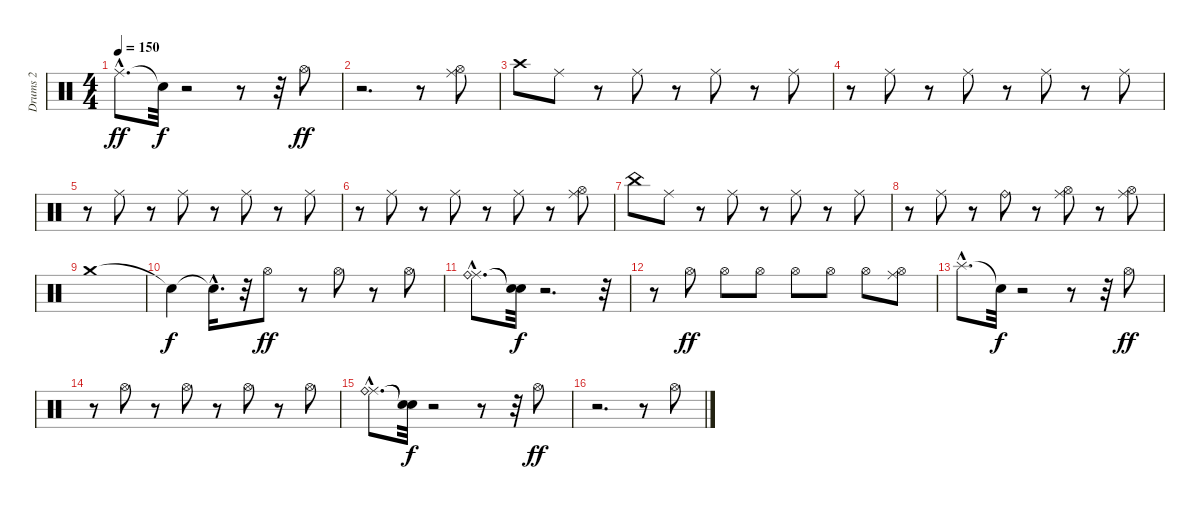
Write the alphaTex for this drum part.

\track ("Drums 2" "Drums 2") {instrument percussion}
\staff {score}
\articulation defaults
\ts (4 4)
\tempo 150
\clef neutral
\ks c "Ride (middle)"{hac}.8{d dy ff} "Snare (hit)"{t}.32{dy f}
r.2 r.8 r.32 "Hi-Hat (open)".8{dy ff} |
r.2{d} r.8 ("Hi-Hat (open)" "Ride (middle)").8 |
"Crash high (hit)".8 "Ride (middle)".8 r.8 "Ride (middle)".8 r.8 "Ride (middle)".8 r.8 "Ride (middle)".8 |
r.8 "Ride (middle)".8 r.8 "Ride (middle)".8 r.8 "Ride (middle)".8 r.8 "Ride (middle)".8 |
r.8 "Ride (middle)".8 r.8 "Ride (middle)".8 r.8 "Ride (middle)".8 r.8 "Ride (middle)".8 |
r.8 "Ride (middle)".8 r.8 "Ride (middle)".8 r.8 "Ride (middle)".8 r.8 ("Hi-Hat (open)" "Ride (middle)").8 |
"China (hit)".8 "Ride (middle)".8 r.8 "Ride (middle)".8 r.8 "Ride (middle)".8 r.8 "Ride (middle)".8 |
r.8 "Ride (middle)".8 r.8 "Ride (bell)".8 r.8 ("Hi-Hat (open)" "Ride (middle)").8 r.8 ("Hi-Hat (open)" "Ride (middle)").8 |
"Crash medium (hit)".1 |
"Snare (hit)"{t}.4{dy f} "Snare (hit)"{hac t}.16{d} r.32 "Hi-Hat (open)".8{dy ff} r.8 "Hi-Hat (open)".8 r.8 "Hi-Hat (open)".8 |
("Ride (middle)"{hac} "Ride (bell)"{hac}).8{d} ("Snare (hit)"{t} "Snare (hit)"{t}).32{dy f} r.2{d} r.32 |
r.8 "Hi-Hat (open)".8{dy ff} "Hi-Hat (open)".8 "Hi-Hat (open)".8 "Hi-Hat (open)".8 "Hi-Hat (open)".8 "Hi-Hat (open)".8 ("Hi-Hat (open)" "Ride (middle)").8 |
"Splash (hit)"{hac}.8{d} "Snare (hit)"{t}.32{dy f} r.2 r.8 r.32 "Hi-Hat (open)".8{dy ff} |
r.8 "Hi-Hat (open)".8 r.8 "Hi-Hat (open)".8 r.8 "Hi-Hat (open)".8 r.8 "Hi-Hat (open)".8 |
("Ride (middle)"{hac} "Ride (bell)"{hac}).8{d} ("Snare (hit)"{t} "Snare (hit)"{t}).32{dy f} r.2 r.8 r.32 "Hi-Hat (open)".8{dy ff} |
r.2{d} r.8 "Hi-Hat (open)".8
